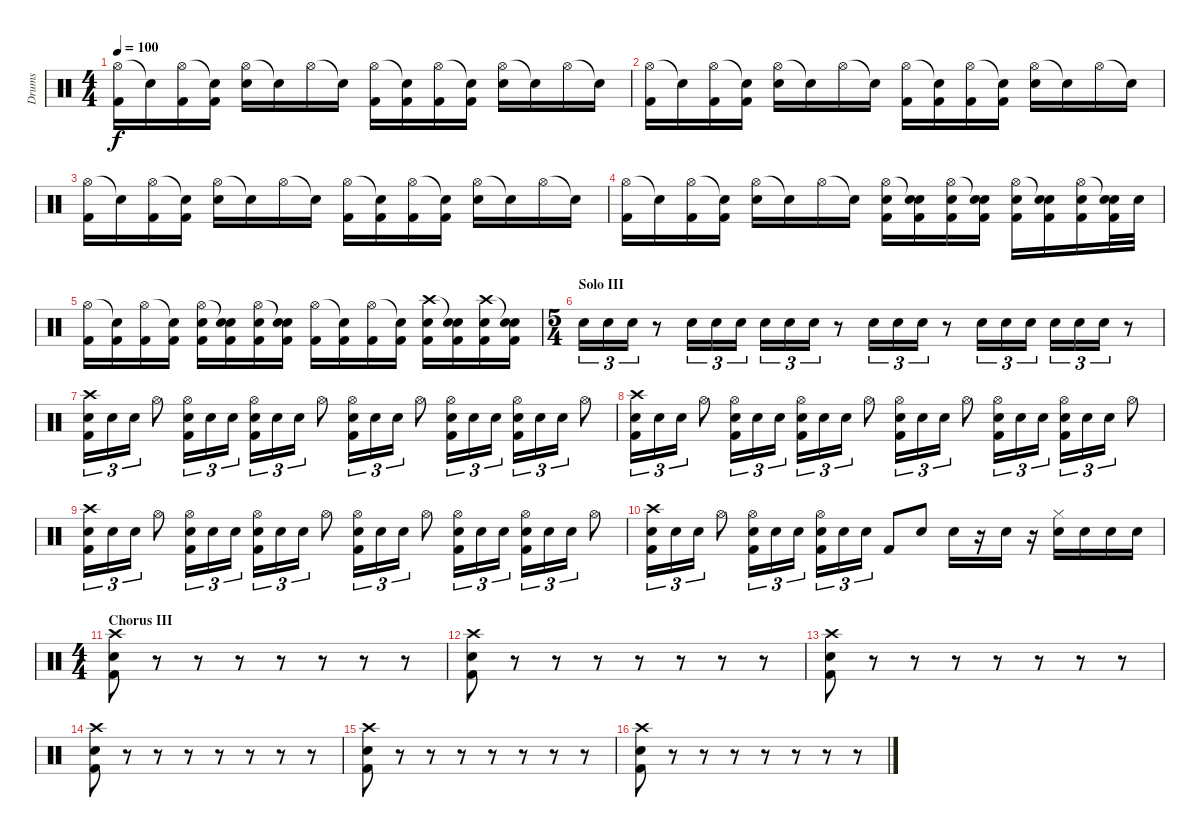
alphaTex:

\track ("Drums" "Drums") {instrument percussion}
\staff {score}
\articulation defaults
\ts (4 4)
\tempo 100
\clef neutral
\ks c
("Hi-Hat (open)" "Kick (hit) 2").16{dy f} "Snare (hit)"{t}.16 ("Hi-Hat (open)" "Kick (hit) 2").16 ("Snare (hit)"{t} "Kick (hit) 2").16 ("Hi-Hat (open)" "Electric Snare (hit)").16 "Snare (hit)"{t}.16 "Hi-Hat (open)".16 "Snare (hit)"{t}.16 ("Hi-Hat (open)" "Kick (hit) 2").16 ("Snare (hit)"{t} "Kick (hit) 2").16 ("Hi-Hat (open)" "Kick (hit) 2").16 ("Snare (hit)"{t} "Kick (hit) 2").16 ("Hi-Hat (open)" "Electric Snare (hit)").16 "Snare (hit)"{t}.16 "Hi-Hat (open)".16 "Snare (hit)"{t}.16 |
("Hi-Hat (open)" "Kick (hit) 2").16 "Snare (hit)"{t}.16 ("Hi-Hat (open)" "Kick (hit) 2").16 ("Snare (hit)"{t} "Kick (hit) 2").16 ("Hi-Hat (open)" "Electric Snare (hit)").16 "Snare (hit)"{t}.16 "Hi-Hat (open)".16 "Snare (hit)"{t}.16 ("Hi-Hat (open)" "Kick (hit) 2").16 ("Snare (hit)"{t} "Kick (hit) 2").16 ("Hi-Hat (open)" "Kick (hit) 2").16 ("Snare (hit)"{t} "Kick (hit) 2").16 ("Hi-Hat (open)" "Electric Snare (hit)").16 "Snare (hit)"{t}.16 "Hi-Hat (open)".16 "Snare (hit)"{t}.16 |
("Hi-Hat (open)" "Kick (hit) 2").16 "Snare (hit)"{t}.16 ("Hi-Hat (open)" "Kick (hit) 2").16 ("Snare (hit)"{t} "Kick (hit) 2").16 ("Hi-Hat (open)" "Electric Snare (hit)").16 "Snare (hit)"{t}.16 "Hi-Hat (open)".16 "Snare (hit)"{t}.16 ("Hi-Hat (open)" "Kick (hit) 2").16 ("Snare (hit)"{t} "Kick (hit) 2").16 ("Hi-Hat (open)" "Kick (hit) 2").16 ("Snare (hit)"{t} "Kick (hit) 2").16 ("Hi-Hat (open)" "Electric Snare (hit)").16 "Snare (hit)"{t}.16 "Hi-Hat (open)".16 "Snare (hit)"{t}.16 |
("Hi-Hat (open)" "Kick (hit) 2").16 "Snare (hit)"{t}.16 ("Hi-Hat (open)" "Kick (hit) 2").16 ("Snare (hit)"{t} "Kick (hit) 2").16 ("Hi-Hat (open)" "Electric Snare (hit)").16 "Snare (hit)"{t}.16 "Hi-Hat (open)".16 "Snare (hit)"{t}.16 ("Hi-Hat (open)" "Electric Snare (hit)" "Kick (hit) 2").16 ("Snare (hit)"{t} "Electric Snare (hit)" "Kick (hit) 2").16 ("Hi-Hat (open)" "Electric Snare (hit)" "Kick (hit) 2").16 ("Snare (hit)"{t} "Electric Snare (hit)" "Kick (hit) 2").16 ("Hi-Hat (open)" "Electric Snare (hit)" "Kick (hit) 2").16 ("Snare (hit)"{t} "Electric Snare (hit)" "Kick (hit) 2").16 ("Hi-Hat (open)" "Electric Snare (hit)" "Kick (hit) 2").16 ("Snare (hit)"{t} "Electric Snare (hit)" "Kick (hit) 2").32 "Electric Snare (hit)".32 |
("Hi-Hat (open)" "Kick (hit) 2").16 ("Snare (hit)"{t} "Kick (hit) 2").16 ("Hi-Hat (open)" "Kick (hit) 2").16 ("Snare (hit)"{t} "Kick (hit) 2").16 ("Hi-Hat (open)" "Electric Snare (hit)" "Kick (hit) 2").16 ("Snare (hit)"{t} "Electric Snare (hit)" "Kick (hit) 2").16 ("Hi-Hat (open)" "Electric Snare (hit)" "Kick (hit) 2").16 ("Snare (hit)"{t} "Electric Snare (hit)" "Kick (hit) 2").16 ("Hi-Hat (open)" "Kick (hit) 2").16 ("Snare (hit)"{t} "Kick (hit) 2").16 ("Hi-Hat (open)" "Kick (hit) 2").16 ("Snare (hit)"{t} "Kick (hit) 2").16 ("Crash high (hit)" "Electric Snare (hit)" "Kick (hit) 2").16 ("Snare (hit)"{t} "Electric Snare (hit)" "Kick (hit) 2").16 ("Crash high (hit)" "Electric Snare (hit)" "Kick (hit) 2").16 ("Snare (hit)"{t} "Electric Snare (hit)" "Kick (hit) 2").16 |
\ts (5 4)
\section ("" "Solo III")
"Electric Snare (hit)".16{tu (3 2)} "Electric Snare (hit)".16{tu (3 2)} "Electric Snare (hit)".16{tu (3 2)} r.8 "Electric Snare (hit)".16{tu (3 2)} "Electric Snare (hit)".16{tu (3 2)} "Electric Snare (hit)".16{tu (3 2)} "Electric Snare (hit)".16{tu (3 2)} "Electric Snare (hit)".16{tu (3 2)} "Electric Snare (hit)".16{tu (3 2)} r.8 "Electric Snare (hit)".16{tu (3 2)} "Electric Snare (hit)".16{tu (3 2)} "Electric Snare (hit)".16{tu (3 2)} r.8 "Electric Snare (hit)".16{tu (3 2)} "Electric Snare (hit)".16{tu (3 2)} "Electric Snare (hit)".16{tu (3 2)} "Electric Snare (hit)".16{tu (3 2)} "Electric Snare (hit)".16{tu (3 2)} "Electric Snare (hit)".16{tu (3 2)} r.8 |
("Crash high (hit)" "Electric Snare (hit)" "Kick (hit) 2").16{tu (3 2)} "Electric Snare (hit)".16{tu (3 2)} "Electric Snare (hit)".16{tu (3 2)} "Hi-Hat (open)".8 ("Hi-Hat (open)" "Electric Snare (hit)" "Kick (hit) 2").16{tu (3 2)} "Electric Snare (hit)".16{tu (3 2)} "Electric Snare (hit)".16{tu (3 2)} ("Hi-Hat (open)" "Electric Snare (hit)" "Kick (hit) 2").16{tu (3 2)} "Electric Snare (hit)".16{tu (3 2)} "Electric Snare (hit)".16{tu (3 2)} "Hi-Hat (open)".8 ("Hi-Hat (open)" "Electric Snare (hit)" "Kick (hit) 2").16{tu (3 2)} "Electric Snare (hit)".16{tu (3 2)} "Electric Snare (hit)".16{tu (3 2)} "Hi-Hat (open)".8 ("Hi-Hat (open)" "Electric Snare (hit)" "Kick (hit) 2").16{tu (3 2)} "Electric Snare (hit)".16{tu (3 2)} "Electric Snare (hit)".16{tu (3 2)} ("Hi-Hat (open)" "Electric Snare (hit)" "Kick (hit) 2").16{tu (3 2)} "Electric Snare (hit)".16{tu (3 2)} "Electric Snare (hit)".16{tu (3 2)} "Hi-Hat (open)".8 |
("Crash high (hit)" "Electric Snare (hit)" "Kick (hit) 2").16{tu (3 2)} "Electric Snare (hit)".16{tu (3 2)} "Electric Snare (hit)".16{tu (3 2)} "Hi-Hat (open)".8 ("Hi-Hat (open)" "Electric Snare (hit)" "Kick (hit) 2").16{tu (3 2)} "Electric Snare (hit)".16{tu (3 2)} "Electric Snare (hit)".16{tu (3 2)} ("Hi-Hat (open)" "Electric Snare (hit)" "Kick (hit) 2").16{tu (3 2)} "Electric Snare (hit)".16{tu (3 2)} "Electric Snare (hit)".16{tu (3 2)} "Hi-Hat (open)".8 ("Hi-Hat (open)" "Electric Snare (hit)" "Kick (hit) 2").16{tu (3 2)} "Electric Snare (hit)".16{tu (3 2)} "Electric Snare (hit)".16{tu (3 2)} "Hi-Hat (open)".8 ("Hi-Hat (open)" "Electric Snare (hit)" "Kick (hit) 2").16{tu (3 2)} "Electric Snare (hit)".16{tu (3 2)} "Electric Snare (hit)".16{tu (3 2)} ("Hi-Hat (open)" "Electric Snare (hit)" "Kick (hit) 2").16{tu (3 2)} "Electric Snare (hit)".16{tu (3 2)} "Electric Snare (hit)".16{tu (3 2)} "Hi-Hat (open)".8 |
("Crash high (hit)" "Electric Snare (hit)" "Kick (hit) 2").16{tu (3 2)} "Electric Snare (hit)".16{tu (3 2)} "Electric Snare (hit)".16{tu (3 2)} "Hi-Hat (open)".8 ("Hi-Hat (open)" "Electric Snare (hit)" "Kick (hit) 2").16{tu (3 2)} "Electric Snare (hit)".16{tu (3 2)} "Electric Snare (hit)".16{tu (3 2)} ("Hi-Hat (open)" "Electric Snare (hit)" "Kick (hit) 2").16{tu (3 2)} "Electric Snare (hit)".16{tu (3 2)} "Electric Snare (hit)".16{tu (3 2)} "Hi-Hat (open)".8 ("Hi-Hat (open)" "Electric Snare (hit)" "Kick (hit) 2").16{tu (3 2)} "Electric Snare (hit)".16{tu (3 2)} "Electric Snare (hit)".16{tu (3 2)} "Hi-Hat (open)".8 ("Hi-Hat (open)" "Electric Snare (hit)" "Kick (hit) 2").16{tu (3 2)} "Electric Snare (hit)".16{tu (3 2)} "Electric Snare (hit)".16{tu (3 2)} ("Hi-Hat (open)" "Electric Snare (hit)" "Kick (hit) 2").16{tu (3 2)} "Electric Snare (hit)".16{tu (3 2)} "Electric Snare (hit)".16{tu (3 2)} "Hi-Hat (open)".8 |
("Crash high (hit)" "Electric Snare (hit)" "Kick (hit) 2").16{tu (3 2)} "Electric Snare (hit)".16{tu (3 2)} "Electric Snare (hit)".16{tu (3 2)} "Hi-Hat (open)".8 ("Hi-Hat (open)" "Electric Snare (hit)" "Kick (hit) 2").16{tu (3 2)} "Electric Snare (hit)".16{tu (3 2)} "Electric Snare (hit)".16{tu (3 2)} ("Hi-Hat (open)" "Electric Snare (hit)" "Kick (hit) 2").16{tu (3 2)} "Electric Snare (hit)".16{tu (3 2)} "Electric Snare (hit)".16{tu (3 2)} "Kick (hit) 2".8 "Electric Snare (hit)".8 "Electric Snare (hit)".16 r.16 "Electric Snare (hit)".16 r.16 ("Hi-Hat (closed)" "Electric Snare (hit)").16 "Electric Snare (hit)".16 "Electric Snare (hit)".16 "Electric Snare (hit)".16 |
\ts (4 4)
\section ("" "Chorus III")
("Crash high (hit)" "Electric Snare (hit)" "Kick (hit) 2").8 r.8 r.8 r.8 r.8 r.8 r.8 r.8 |
("Crash high (hit)" "Electric Snare (hit)" "Kick (hit) 2").8 r.8 r.8 r.8 r.8 r.8 r.8 r.8 |
("Crash high (hit)" "Electric Snare (hit)" "Kick (hit) 2").8 r.8 r.8 r.8 r.8 r.8 r.8 r.8 |
("Crash high (hit)" "Electric Snare (hit)" "Kick (hit) 2").8 r.8 r.8 r.8 r.8 r.8 r.8 r.8 |
("Crash high (hit)" "Electric Snare (hit)" "Kick (hit) 2").8 r.8 r.8 r.8 r.8 r.8 r.8 r.8 |
("Crash high (hit)" "Electric Snare (hit)" "Kick (hit) 2").8 r.8 r.8 r.8 r.8 r.8 r.8 r.8
